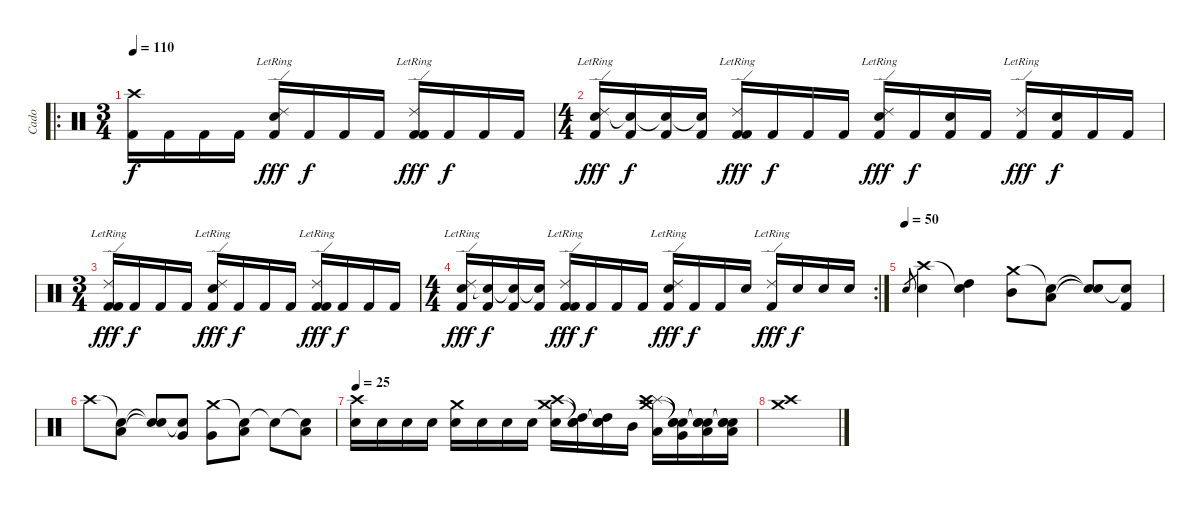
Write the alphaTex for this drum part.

\track ("Cado" "Cado") {instrument percussion}
\staff {score}
\articulation defaults
\ro
\ts (3 4)
\tempo 110
\clef neutral
\ks c
("Crash high (hit)" "Kick (hit) 2").16{dy f} "Kick (hit) 2".16 "Kick (hit) 2".16 "Kick (hit) 2".16 ("Ride (edge) 2"{lr} "Snare (hit) 2" "Kick (hit) 2").16{dy fff} "Kick (hit) 2".16{dy f} "Kick (hit) 2".16 "Kick (hit) 2".16 ("Ride (edge) 2"{lr} "Kick (hit) 2" "Kick (hit) 2").16{dy fff} "Kick (hit) 2".16{dy f} "Kick (hit) 2".16 "Kick (hit) 2".16 |
\ts (4 4)
("Ride (edge) 2"{lr} "Snare (hit) 2" "Kick (hit) 2").16{dy fff} ("Snare (hit)"{t} "Kick (hit) 2").16{dy f} ("Snare (hit)"{t} "Kick (hit) 2").16 ("Snare (hit)"{t} "Kick (hit) 2").16 ("Ride (edge) 2"{lr} "Kick (hit) 2" "Kick (hit) 2").16{dy fff} "Kick (hit) 2".16{dy f} "Kick (hit) 2".16 "Kick (hit) 2".16 ("Ride (edge) 2"{lr} "Snare (hit) 2" "Kick (hit) 2").16{dy fff} "Kick (hit) 2".16{dy f} ("Snare (hit) 2" "Kick (hit) 2").16 "Kick (hit) 2".16 ("Ride (edge) 2"{lr} "Kick (hit) 2").16{dy fff} ("Snare (hit) 2" "Kick (hit) 2").16{dy f} "Kick (hit) 2".16 "Kick (hit) 2".16 |
\ts (3 4)
("Ride (edge) 2"{lr} "Kick (hit) 2" "Kick (hit) 2").16{dy fff} "Kick (hit) 2".16{dy f} "Kick (hit) 2".16 "Kick (hit) 2".16 ("Ride (edge) 2"{lr} "Snare (hit) 2" "Kick (hit) 2").16{dy fff} "Kick (hit) 2".16{dy f} "Kick (hit) 2".16 "Kick (hit) 2".16 ("Ride (edge) 2"{lr} "Kick (hit) 2" "Kick (hit) 2").16{dy fff} "Kick (hit) 2".16{dy f} "Kick (hit) 2".16 "Kick (hit) 2".16 |
\rc 2
\ts (4 4)
("Ride (edge) 2"{lr} "Snare (hit) 2" "Kick (hit) 2").16{dy fff} ("Snare (hit)"{t} "Kick (hit) 2").16{dy f} ("Snare (hit)"{t} "Kick (hit) 2").16 ("Snare (hit)"{t} "Kick (hit) 2").16 ("Ride (edge) 2"{lr} "Kick (hit) 2" "Kick (hit) 2").16{dy fff} "Kick (hit) 2".16{dy f} "Kick (hit) 2".16 "Kick (hit) 2".16 ("Ride (edge) 2"{lr} "Snare (hit) 2" "Kick (hit) 2").16{dy fff} "Kick (hit) 2".16{dy f} "Kick (hit) 2".16 "Snare (hit) 2".16 ("Ride (edge) 2"{lr} "Kick (hit) 2").16{dy fff} "Snare (hit) 2".16{dy f} "Snare (hit) 2".16 "Snare (hit) 2".16 |
\tempo (50)
"Snare (hit) 2".8{gr} ("Crash high (hit)" "Snare (hit) 2").4 ("Snare (hit)"{t} "High Tom (hit)").4 ("Crash medium (hit)" "Mid Tom (hit)").8 ("Snare (hit)"{t} "Low Tom (hit)").8 ("Snare (hit)"{t} "Snare (hit)"{t}).8 ("Snare (hit)"{t} "Kick (hit) 2").8 |
"Crash high (hit)".8 ("Snare (hit)"{t} "Low Tom (hit)").8 ("Snare (hit)"{t} "Snare (hit)"{t}).8 ("Snare (hit)"{t} "Very Low Tom (hit)").8 ("Crash medium (hit)" "Very Low Tom (hit)").8 ("Snare (hit)"{t} "Low Floor Tom (hit)").8 "Snare (hit)"{t}.8 ("Snare (hit)"{t} "Low Floor Tom (hit)").8 |
\tempo 25
("Crash high (hit)" "Snare (hit) 2").16 "Snare (hit) 2".16 "Snare (hit) 2".16 "Snare (hit) 2".16 ("Crash medium (hit)" "Snare (hit) 2").16 "Snare (hit) 2".16 "Snare (hit) 2".16 "Snare (hit) 2".16 ("Crash high (hit)" "Snare (hit) 2" "Crash medium (hit)").16 ("Snare (hit)"{t} "High Tom (hit)" "Snare (hit)"{t}).16 ("Snare (hit)"{t} "High Tom (hit)" "Snare (hit)"{t}).16 "Mid Tom (hit)".16 ("Splash (hit)" "Low Tom (hit)" "Crash high (hit)" "Crash medium (hit)").16 ("Snare (hit)"{t} "Very Low Tom (hit)" "Snare (hit)"{t} "Snare (hit)"{t}).16 ("Snare (hit)"{t} "Low Floor Tom (hit)" "Snare (hit)"{t} "Snare (hit)"{t}).16 ("Snare (hit)"{t} "Low Floor Tom (hit)" "Snare (hit)"{t} "Snare (hit)"{t}).16 |
("Crash high (hit)" "Crash medium (hit)").1
